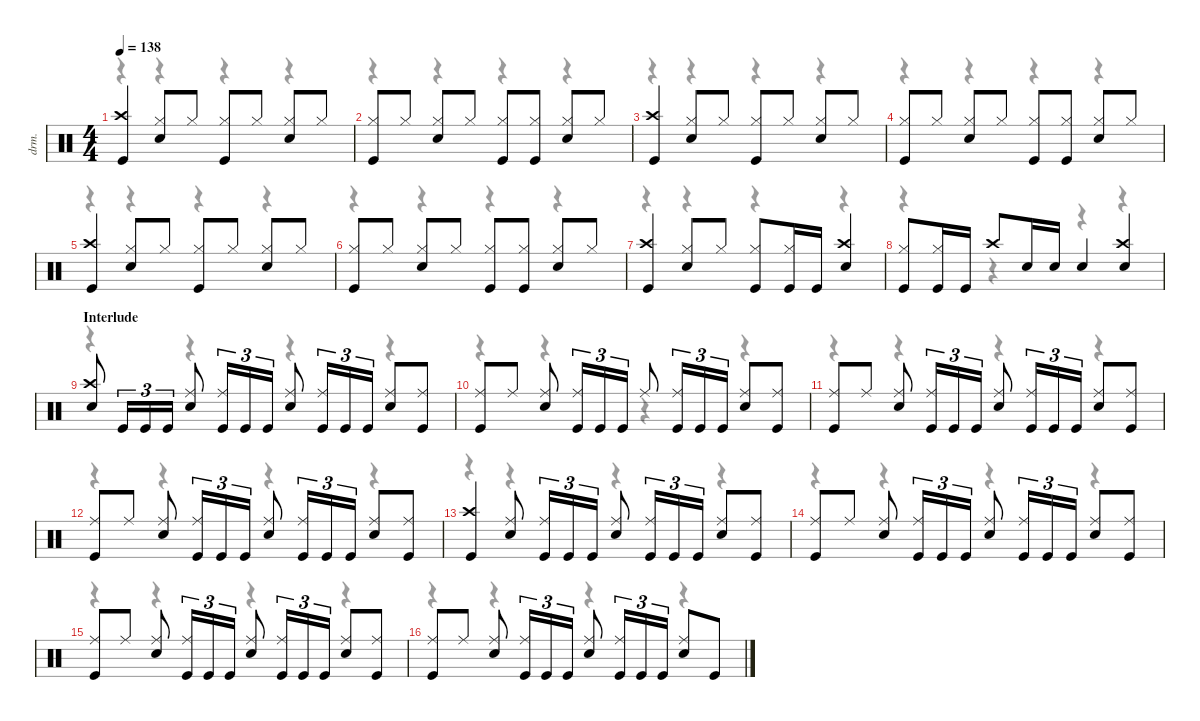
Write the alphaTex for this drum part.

\defaultSystemsLayout 4
\hideDynamics
\bracketExtendMode nobrackets
\track ("Drumkit" "drm.") {instrument percussion}
\staff {score}
\articulation defaults
\voice
\ts (4 4)
\tempo 138
\clef neutral
\ks c
("Kick (hit)" "Crash high (hit)").4{dy f} ("Hi-Hat (closed)" "Snare (hit) 2").8 "Hi-Hat (closed)".8 ("Hi-Hat (closed)" "Kick (hit)").8 "Hi-Hat (closed)".8 ("Snare (hit) 2" "Hi-Hat (closed)").8 "Hi-Hat (closed)".8 |
("Kick (hit)" "Hi-Hat (closed)").8 "Hi-Hat (closed)".8 ("Snare (hit) 2" "Hi-Hat (closed)").8 "Hi-Hat (closed)".8 ("Hi-Hat (closed)" "Kick (hit)").8 ("Hi-Hat (closed)" "Kick (hit)").8 ("Snare (hit) 2" "Hi-Hat (closed)").8 "Hi-Hat (closed)".8 |
("Kick (hit)" "Crash high (hit)").4 ("Hi-Hat (closed)" "Snare (hit) 2").8 "Hi-Hat (closed)".8 ("Hi-Hat (closed)" "Kick (hit)").8 "Hi-Hat (closed)".8 ("Snare (hit) 2" "Hi-Hat (closed)").8 "Hi-Hat (closed)".8 |
("Kick (hit)" "Hi-Hat (closed)").8 "Hi-Hat (closed)".8 ("Snare (hit) 2" "Hi-Hat (closed)").8 "Hi-Hat (closed)".8 ("Hi-Hat (closed)" "Kick (hit)").8 ("Hi-Hat (closed)" "Kick (hit)").8 ("Snare (hit) 2" "Hi-Hat (closed)").8 "Hi-Hat (closed)".8 |
("Kick (hit)" "Crash high (hit)").4 ("Hi-Hat (closed)" "Snare (hit) 2").8 "Hi-Hat (closed)".8 ("Hi-Hat (closed)" "Kick (hit)").8 "Hi-Hat (closed)".8 ("Snare (hit) 2" "Hi-Hat (closed)").8 "Hi-Hat (closed)".8 |
("Kick (hit)" "Hi-Hat (closed)").8 "Hi-Hat (closed)".8 ("Snare (hit) 2" "Hi-Hat (closed)").8 "Hi-Hat (closed)".8 ("Hi-Hat (closed)" "Kick (hit)").8 ("Hi-Hat (closed)" "Kick (hit)").8 ("Snare (hit) 2" "Hi-Hat (closed)").8 "Hi-Hat (closed)".8 |
("Kick (hit)" "Crash high (hit)").4 ("Hi-Hat (closed)" "Snare (hit) 2").8 "Hi-Hat (closed)".8 ("Hi-Hat (closed)" "Kick (hit)").8 ("Hi-Hat (closed)" "Kick (hit)").16 "Kick (hit)".16 ("Crash high (hit)" "Snare (hit) 2").4 |
("Kick (hit)" "Hi-Hat (closed)").8 ("Kick (hit)" "Hi-Hat (closed)").16 "Kick (hit)".16 "Crash high (hit)".8 "Snare (hit) 2".16 "Snare (hit) 2".16 "Snare (hit) 2".4 ("Crash high (hit)" "Snare (hit) 2").4 |
\section ("" "Interlude")
("Snare (hit) 2" "Crash high (hit)").8 "Kick (hit)".16{tu (3 2)} "Kick (hit)".16{tu (3 2)} "Kick (hit)".16{tu (3 2)} ("Ride (middle)" "Snare (hit) 2").8 ("Kick (hit)" "Ride (middle)").16{tu (3 2)} "Kick (hit)".16{tu (3 2)} "Kick (hit)".16{tu (3 2)} ("Ride (middle)" "Snare (hit) 2").8 ("Ride (middle)" "Kick (hit)").16{tu (3 2)} "Kick (hit)".16{tu (3 2)} "Kick (hit)".16{tu (3 2)} ("Ride (middle)" "Snare (hit) 2").8 ("Kick (hit)" "Ride (middle)").8 |
("Ride (middle)" "Kick (hit)").8 "Ride (middle)".8 ("Snare (hit) 2" "Ride (middle)").8 ("Ride (middle)" "Kick (hit)").16{tu (3 2)} "Kick (hit)".16{tu (3 2)} "Kick (hit)".16{tu (3 2)} "Ride (middle)".8 ("Ride (middle)" "Kick (hit)").16{tu (3 2)} "Kick (hit)".16{tu (3 2)} "Kick (hit)".16{tu (3 2)} ("Snare (hit) 2" "Ride (middle)").8 ("Ride (middle)" "Kick (hit)").8 |
("Kick (hit)" "Ride (middle)").8 "Ride (middle)".8 ("Snare (hit) 2" "Ride (middle)").8 ("Kick (hit)" "Ride (middle)").16{tu (3 2)} "Kick (hit)".16{tu (3 2)} "Kick (hit)".16{tu (3 2)} ("Snare (hit) 2" "Ride (middle)").8 ("Kick (hit)" "Ride (middle)").16{tu (3 2)} "Kick (hit)".16{tu (3 2)} "Kick (hit)".16{tu (3 2)} ("Snare (hit) 2" "Ride (middle)").8 ("Kick (hit)" "Ride (middle)").8 |
("Kick (hit)" "Ride (middle)").8 "Ride (middle)".8 ("Snare (hit) 2" "Ride (middle)").8 ("Kick (hit)" "Ride (middle)").16{tu (3 2)} "Kick (hit)".16{tu (3 2)} "Kick (hit)".16{tu (3 2)} ("Snare (hit) 2" "Ride (middle)").8 ("Kick (hit)" "Ride (middle)").16{tu (3 2)} "Kick (hit)".16{tu (3 2)} "Kick (hit)".16{tu (3 2)} ("Snare (hit) 2" "Ride (middle)").8 ("Kick (hit)" "Ride (middle)").8 |
("Kick (hit)" "Crash high (hit)").4 ("Snare (hit) 2" "Ride (middle)").8 ("Kick (hit)" "Ride (middle)").16{tu (3 2)} "Kick (hit)".16{tu (3 2)} "Kick (hit)".16{tu (3 2)} ("Ride (middle)" "Snare (hit) 2").8 ("Ride (middle)" "Kick (hit)").16{tu (3 2)} "Kick (hit)".16{tu (3 2)} "Kick (hit)".16{tu (3 2)} ("Ride (middle)" "Snare (hit) 2").8 ("Ride (middle)" "Kick (hit)").8 |
("Kick (hit)" "Ride (middle)").8 "Ride (middle)".8 ("Snare (hit) 2" "Ride (middle)").8 ("Kick (hit)" "Ride (middle)").16{tu (3 2)} "Kick (hit)".16{tu (3 2)} "Kick (hit)".16{tu (3 2)} ("Snare (hit) 2" "Ride (middle)").8 ("Kick (hit)" "Ride (middle)").16{tu (3 2)} "Kick (hit)".16{tu (3 2)} "Kick (hit)".16{tu (3 2)} ("Snare (hit) 2" "Ride (middle)").8 ("Kick (hit)" "Ride (middle)").8 |
("Kick (hit)" "Ride (middle)").8 "Ride (middle)".8 ("Snare (hit) 2" "Ride (middle)").8 ("Kick (hit)" "Ride (middle)").16{tu (3 2)} "Kick (hit)".16{tu (3 2)} "Kick (hit)".16{tu (3 2)} ("Snare (hit) 2" "Ride (middle)").8 ("Kick (hit)" "Ride (middle)").16{tu (3 2)} "Kick (hit)".16{tu (3 2)} "Kick (hit)".16{tu (3 2)} ("Snare (hit) 2" "Ride (middle)").8 ("Kick (hit)" "Ride (middle)").8 |
("Ride (middle)" "Kick (hit)").8 "Ride (middle)".8 ("Snare (hit) 2" "Ride (middle)").8 ("Kick (hit)" "Ride (middle)").16{tu (3 2)} "Kick (hit)".16{tu (3 2)} "Kick (hit)".16{tu (3 2)} ("Snare (hit) 2" "Ride (middle)").8 ("Kick (hit)" "Ride (middle)").16{tu (3 2)} "Kick (hit)".16{tu (3 2)} "Kick (hit)".16{tu (3 2)} ("Snare (hit) 2" "Ride (middle)").8 "Kick (hit)".8
\voice
\clef neutral
\ottava regular
\simile none
\ks c
r.4{dy mf} r.4 r.4 r.4 |
r.4 r.4 r.4 r.4 |
r.4 r.4 r.4 r.4 |
r.4 r.4 r.4 r.4 |
r.4 r.4 r.4 r.4 |
r.4 r.4 r.4 r.4 |
r.4 r.4 r.4 r.4 |
r.4 r.4 r.4 r.4 |
r.4 r.4 r.4 r.4 |
r.4 r.4 r.4 r.4 |
r.4 r.4 r.4 r.4 |
r.4 r.4 r.4 r.4 |
r.4 r.4 r.4 r.4 |
r.4 r.4 r.4 r.4 |
r.4 r.4 r.4 r.4 |
r.4 r.4 r.4 r.4
